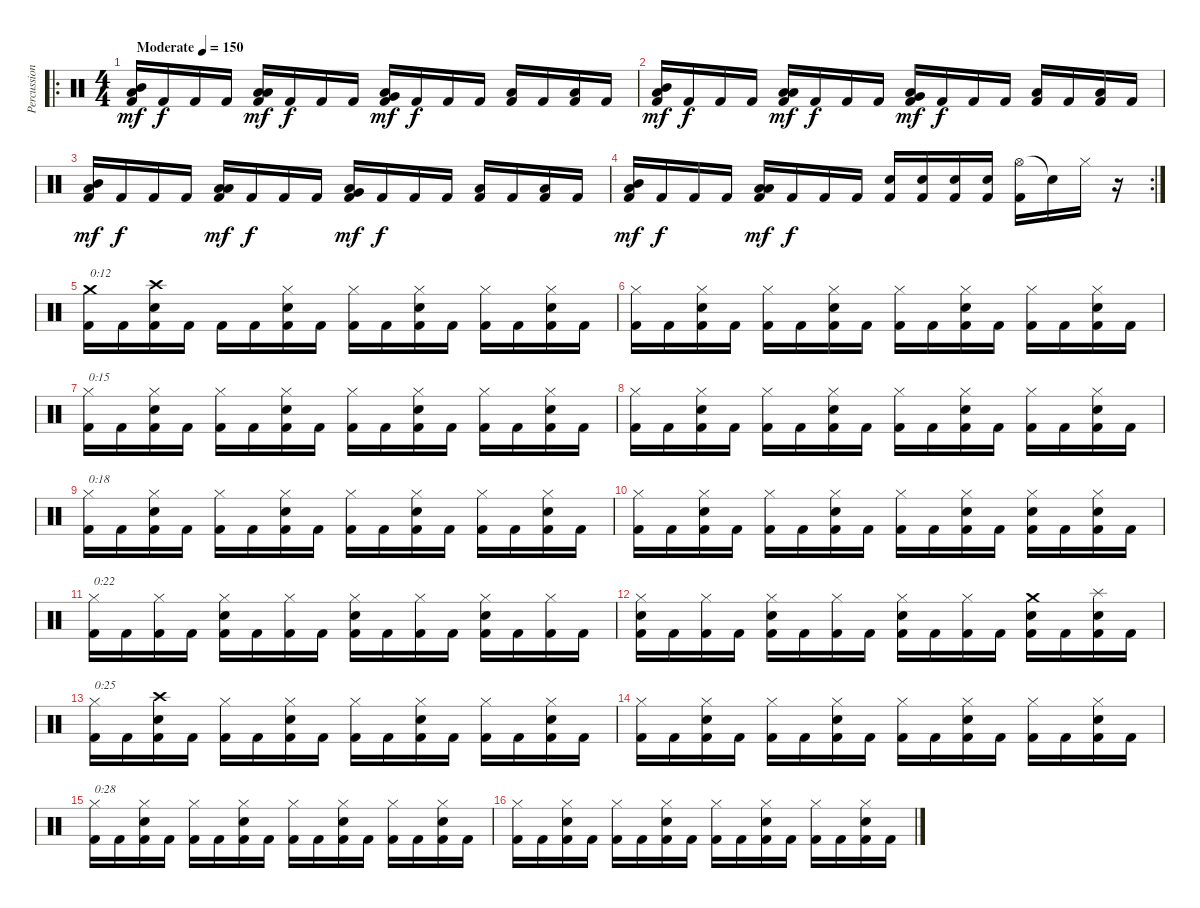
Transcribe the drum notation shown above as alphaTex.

\track ("Percussion" "Percussion") {instrument percussion}
\staff {score}
\articulation defaults
\ro
\ts (4 4)
\tempo (150 "Moderate")
\clef neutral
\ks c
("Mid Tom (hit)" "Low Floor Tom (hit)" "Kick (hit) 2").16{dy mf} "Kick (hit) 2".16{dy f} "Kick (hit) 2".16 "Kick (hit) 2".16 ("Low Tom (hit)" "Low Floor Tom (hit)" "Kick (hit) 2").16{dy mf} "Kick (hit) 2".16{dy f} "Kick (hit) 2".16 "Kick (hit) 2".16 ("Very Low Tom (hit)" "Low Floor Tom (hit)" "Kick (hit) 2").16{dy mf} "Kick (hit) 2".16{dy f} "Kick (hit) 2".16 "Kick (hit) 2".16 ("Low Floor Tom (hit)" "Kick (hit) 2").16 "Kick (hit) 2".16 ("Low Floor Tom (hit)" "Kick (hit) 2").16 "Kick (hit) 2".16 |
("Mid Tom (hit)" "Low Floor Tom (hit)" "Kick (hit) 2").16{dy mf} "Kick (hit) 2".16{dy f} "Kick (hit) 2".16 "Kick (hit) 2".16 ("Low Tom (hit)" "Low Floor Tom (hit)" "Kick (hit) 2").16{dy mf} "Kick (hit) 2".16{dy f} "Kick (hit) 2".16 "Kick (hit) 2".16 ("Very Low Tom (hit)" "Low Floor Tom (hit)" "Kick (hit) 2").16{dy mf} "Kick (hit) 2".16{dy f} "Kick (hit) 2".16 "Kick (hit) 2".16 ("Low Floor Tom (hit)" "Kick (hit) 2").16 "Kick (hit) 2".16 ("Low Floor Tom (hit)" "Kick (hit) 2").16 "Kick (hit) 2".16 |
("Mid Tom (hit)" "Low Floor Tom (hit)" "Kick (hit) 2").16{dy mf} "Kick (hit) 2".16{dy f} "Kick (hit) 2".16 "Kick (hit) 2".16 ("Low Tom (hit)" "Low Floor Tom (hit)" "Kick (hit) 2").16{dy mf} "Kick (hit) 2".16{dy f} "Kick (hit) 2".16 "Kick (hit) 2".16 ("Very Low Tom (hit)" "Low Floor Tom (hit)" "Kick (hit) 2").16{dy mf} "Kick (hit) 2".16{dy f} "Kick (hit) 2".16 "Kick (hit) 2".16 ("Low Floor Tom (hit)" "Kick (hit) 2").16 "Kick (hit) 2".16 ("Low Floor Tom (hit)" "Kick (hit) 2").16 "Kick (hit) 2".16 |
\rc 2
("Mid Tom (hit)" "Low Floor Tom (hit)" "Kick (hit) 2").16{dy mf} "Kick (hit) 2".16{dy f} "Kick (hit) 2".16 "Kick (hit) 2".16 ("Low Tom (hit)" "Low Floor Tom (hit)" "Kick (hit) 2").16{dy mf} "Kick (hit) 2".16{dy f} "Kick (hit) 2".16 "Kick (hit) 2".16 ("Electric Snare (hit)" "Kick (hit) 2").16 ("Electric Snare (hit)" "Kick (hit) 2").16 ("Electric Snare (hit)" "Kick (hit) 2").16 ("Electric Snare (hit)" "Kick (hit) 2").16 ("Hi-Hat (open)" "Kick (hit) 2").16 "Snare (hit)"{t}.16 "Hi-Hat (closed)".16 r.16 |
("Crash medium (hit)" "Kick (hit) 2").16{txt "0:12"} "Kick (hit) 2".16 ("Crash high (hit)" "Electric Snare (hit)" "Kick (hit) 2").16 "Kick (hit) 2".16 "Kick (hit) 2".16 "Kick (hit) 2".16 ("Hi-Hat (closed)" "Electric Snare (hit)" "Kick (hit) 2").16 "Kick (hit) 2".16 ("Hi-Hat (closed)" "Kick (hit) 2").16 "Kick (hit) 2".16 ("Hi-Hat (closed)" "Electric Snare (hit)" "Kick (hit) 2").16 "Kick (hit) 2".16 ("Hi-Hat (closed)" "Kick (hit) 2").16 "Kick (hit) 2".16 ("Hi-Hat (closed)" "Electric Snare (hit)" "Kick (hit) 2").16 "Kick (hit) 2".16 |
("Hi-Hat (closed)" "Kick (hit) 2").16 "Kick (hit) 2".16 ("Hi-Hat (closed)" "Electric Snare (hit)" "Kick (hit) 2").16 "Kick (hit) 2".16 ("Hi-Hat (closed)" "Kick (hit) 2").16 "Kick (hit) 2".16 ("Hi-Hat (closed)" "Electric Snare (hit)" "Kick (hit) 2").16 "Kick (hit) 2".16 ("Hi-Hat (closed)" "Kick (hit) 2").16 "Kick (hit) 2".16 ("Hi-Hat (closed)" "Electric Snare (hit)" "Kick (hit) 2").16 "Kick (hit) 2".16 ("Hi-Hat (closed)" "Kick (hit) 2").16 "Kick (hit) 2".16 ("Hi-Hat (closed)" "Electric Snare (hit)" "Kick (hit) 2").16 "Kick (hit) 2".16 |
("Hi-Hat (closed)" "Kick (hit) 2").16{txt "0:15"} "Kick (hit) 2".16 ("Hi-Hat (closed)" "Electric Snare (hit)" "Kick (hit) 2").16 "Kick (hit) 2".16 ("Hi-Hat (closed)" "Kick (hit) 2").16 "Kick (hit) 2".16 ("Hi-Hat (closed)" "Electric Snare (hit)" "Kick (hit) 2").16 "Kick (hit) 2".16 ("Hi-Hat (closed)" "Kick (hit) 2").16 "Kick (hit) 2".16 ("Hi-Hat (closed)" "Electric Snare (hit)" "Kick (hit) 2").16 "Kick (hit) 2".16 ("Hi-Hat (closed)" "Kick (hit) 2").16 "Kick (hit) 2".16 ("Hi-Hat (closed)" "Electric Snare (hit)" "Kick (hit) 2").16 "Kick (hit) 2".16 |
("Hi-Hat (closed)" "Kick (hit) 2").16 "Kick (hit) 2".16 ("Hi-Hat (closed)" "Electric Snare (hit)" "Kick (hit) 2").16 "Kick (hit) 2".16 ("Hi-Hat (closed)" "Kick (hit) 2").16 "Kick (hit) 2".16 ("Hi-Hat (closed)" "Electric Snare (hit)" "Kick (hit) 2").16 "Kick (hit) 2".16 ("Hi-Hat (closed)" "Kick (hit) 2").16 "Kick (hit) 2".16 ("Hi-Hat (closed)" "Electric Snare (hit)" "Kick (hit) 2").16 "Kick (hit) 2".16 ("Hi-Hat (closed)" "Kick (hit) 2").16 "Kick (hit) 2".16 ("Hi-Hat (closed)" "Electric Snare (hit)" "Kick (hit) 2").16 "Kick (hit) 2".16 |
("Hi-Hat (closed)" "Kick (hit) 2").16{txt "0:18"} "Kick (hit) 2".16 ("Hi-Hat (closed)" "Electric Snare (hit)" "Kick (hit) 2").16 "Kick (hit) 2".16 ("Hi-Hat (closed)" "Kick (hit) 2").16 "Kick (hit) 2".16 ("Hi-Hat (closed)" "Electric Snare (hit)" "Kick (hit) 2").16 "Kick (hit) 2".16 ("Hi-Hat (closed)" "Kick (hit) 2").16 "Kick (hit) 2".16 ("Hi-Hat (closed)" "Electric Snare (hit)" "Kick (hit) 2").16 "Kick (hit) 2".16 ("Hi-Hat (closed)" "Kick (hit) 2").16 "Kick (hit) 2".16 ("Hi-Hat (closed)" "Electric Snare (hit)" "Kick (hit) 2").16 "Kick (hit) 2".16 |
("Hi-Hat (closed)" "Kick (hit) 2").16 "Kick (hit) 2".16 ("Hi-Hat (closed)" "Electric Snare (hit)" "Kick (hit) 2").16 "Kick (hit) 2".16 ("Hi-Hat (closed)" "Kick (hit) 2").16 "Kick (hit) 2".16 ("Hi-Hat (closed)" "Electric Snare (hit)" "Kick (hit) 2").16 "Kick (hit) 2".16 ("Hi-Hat (closed)" "Kick (hit) 2").16 "Kick (hit) 2".16 ("Hi-Hat (closed)" "Electric Snare (hit)" "Kick (hit) 2").16 "Kick (hit) 2".16 ("Hi-Hat (closed)" "Electric Snare (hit)" "Kick (hit) 2").16 "Kick (hit) 2".16 ("Hi-Hat (closed)" "Electric Snare (hit)" "Kick (hit) 2").16 "Kick (hit) 2".16 |
("Hi-Hat (closed)" "Kick (hit) 2").16{txt "0:22"} "Kick (hit) 2".16 ("Hi-Hat (closed)" "Kick (hit) 2").16 "Kick (hit) 2".16 ("Hi-Hat (closed)" "Electric Snare (hit)" "Kick (hit) 2").16 "Kick (hit) 2".16 ("Hi-Hat (closed)" "Kick (hit) 2").16 "Kick (hit) 2".16 ("Hi-Hat (closed)" "Electric Snare (hit)" "Kick (hit) 2").16 "Kick (hit) 2".16 ("Hi-Hat (closed)" "Kick (hit) 2").16 "Kick (hit) 2".16 ("Hi-Hat (closed)" "Electric Snare (hit)" "Kick (hit) 2").16 "Kick (hit) 2".16 ("Hi-Hat (closed)" "Kick (hit) 2").16 "Kick (hit) 2".16 |
("Hi-Hat (closed)" "Electric Snare (hit)" "Kick (hit) 2").16 "Kick (hit) 2".16 ("Hi-Hat (closed)" "Kick (hit) 2").16 "Kick (hit) 2".16 ("Hi-Hat (closed)" "Electric Snare (hit)" "Kick (hit) 2").16 "Kick (hit) 2".16 ("Hi-Hat (closed)" "Kick (hit) 2").16 "Kick (hit) 2".16 ("Hi-Hat (closed)" "Electric Snare (hit)" "Kick (hit) 2").16 "Kick (hit) 2".16 ("Hi-Hat (closed)" "Kick (hit) 2").16 "Kick (hit) 2".16 ("Crash medium (hit)" "Electric Snare (hit)" "Kick (hit) 2").16 "Kick (hit) 2".16 ("Splash (hit)" "Electric Snare (hit)" "Kick (hit) 2").16 "Kick (hit) 2".16 |
("Hi-Hat (closed)" "Kick (hit) 2").16{txt "0:25"} "Kick (hit) 2".16 ("Crash high (hit)" "Electric Snare (hit)" "Kick (hit) 2").16 "Kick (hit) 2".16 ("Hi-Hat (closed)" "Kick (hit) 2").16 "Kick (hit) 2".16 ("Hi-Hat (closed)" "Electric Snare (hit)" "Kick (hit) 2").16 "Kick (hit) 2".16 ("Hi-Hat (closed)" "Kick (hit) 2").16 "Kick (hit) 2".16 ("Hi-Hat (closed)" "Electric Snare (hit)" "Kick (hit) 2").16 "Kick (hit) 2".16 ("Hi-Hat (closed)" "Kick (hit) 2").16 "Kick (hit) 2".16 ("Hi-Hat (closed)" "Electric Snare (hit)" "Kick (hit) 2").16 "Kick (hit) 2".16 |
("Hi-Hat (closed)" "Kick (hit) 2").16 "Kick (hit) 2".16 ("Hi-Hat (closed)" "Electric Snare (hit)" "Kick (hit) 2").16 "Kick (hit) 2".16 ("Hi-Hat (closed)" "Kick (hit) 2").16 "Kick (hit) 2".16 ("Hi-Hat (closed)" "Electric Snare (hit)" "Kick (hit) 2").16 "Kick (hit) 2".16 ("Hi-Hat (closed)" "Kick (hit) 2").16 "Kick (hit) 2".16 ("Hi-Hat (closed)" "Electric Snare (hit)" "Kick (hit) 2").16 "Kick (hit) 2".16 ("Hi-Hat (closed)" "Kick (hit) 2").16 "Kick (hit) 2".16 ("Hi-Hat (closed)" "Electric Snare (hit)" "Kick (hit) 2").16 "Kick (hit) 2".16 |
("Hi-Hat (closed)" "Kick (hit) 2").16{txt "0:28"} "Kick (hit) 2".16 ("Hi-Hat (closed)" "Electric Snare (hit)" "Kick (hit) 2").16 "Kick (hit) 2".16 ("Hi-Hat (closed)" "Kick (hit) 2").16 "Kick (hit) 2".16 ("Hi-Hat (closed)" "Electric Snare (hit)" "Kick (hit) 2").16 "Kick (hit) 2".16 ("Hi-Hat (closed)" "Kick (hit) 2").16 "Kick (hit) 2".16 ("Hi-Hat (closed)" "Electric Snare (hit)" "Kick (hit) 2").16 "Kick (hit) 2".16 ("Hi-Hat (closed)" "Kick (hit) 2").16 "Kick (hit) 2".16 ("Hi-Hat (closed)" "Electric Snare (hit)" "Kick (hit) 2").16 "Kick (hit) 2".16 |
("Hi-Hat (closed)" "Kick (hit) 2").16 "Kick (hit) 2".16 ("Hi-Hat (closed)" "Electric Snare (hit)" "Kick (hit) 2").16 "Kick (hit) 2".16 ("Hi-Hat (closed)" "Kick (hit) 2").16 "Kick (hit) 2".16 ("Hi-Hat (closed)" "Electric Snare (hit)" "Kick (hit) 2").16 "Kick (hit) 2".16 ("Hi-Hat (closed)" "Kick (hit) 2").16 "Kick (hit) 2".16 ("Hi-Hat (closed)" "Electric Snare (hit)" "Kick (hit) 2").16 "Kick (hit) 2".16 ("Hi-Hat (closed)" "Kick (hit) 2").16 "Kick (hit) 2".16 ("Hi-Hat (closed)" "Electric Snare (hit)" "Kick (hit) 2").16 "Kick (hit) 2".16
